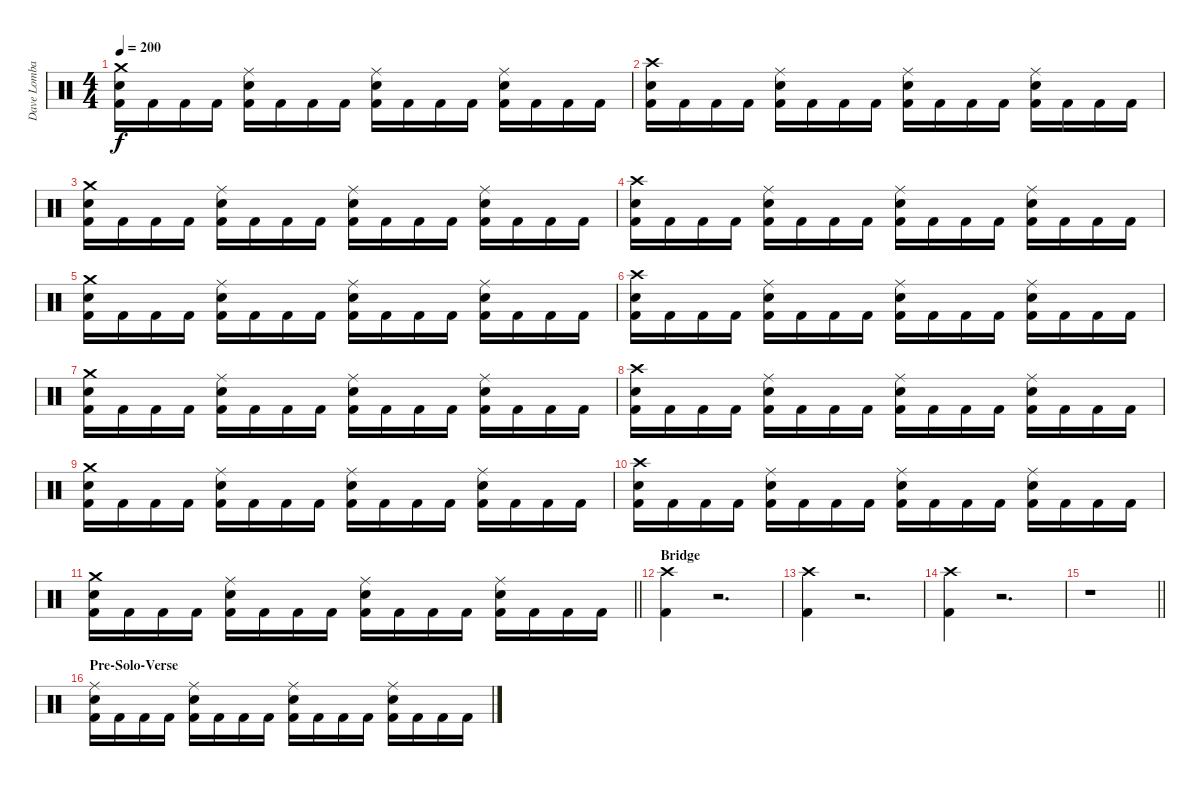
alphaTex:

\track ("Dave Lombardo (Drums)" "Dave Lomba") {instrument percussion}
\staff {score}
\articulation defaults
\ts (4 4)
\tempo 200
\clef neutral
\ks c
("Crash medium (hit)" "Snare (hit) 2" "Kick (hit) 2").16{dy f} "Kick (hit) 2".16 "Kick (hit) 2".16 "Kick (hit) 2".16 ("Ride (middle)" "Snare (hit) 2" "Kick (hit) 2").16 "Kick (hit) 2".16 "Kick (hit) 2".16 "Kick (hit) 2".16 ("Ride (middle)" "Snare (hit) 2" "Kick (hit) 2").16 "Kick (hit) 2".16 "Kick (hit) 2".16 "Kick (hit) 2".16 ("Ride (middle)" "Snare (hit) 2" "Kick (hit) 2").16 "Kick (hit) 2".16 "Kick (hit) 2".16 "Kick (hit) 2".16 |
("Crash high (hit)" "Snare (hit) 2" "Kick (hit) 2").16 "Kick (hit) 2".16 "Kick (hit) 2".16 "Kick (hit) 2".16 ("Ride (middle)" "Snare (hit) 2" "Kick (hit) 2").16 "Kick (hit) 2".16 "Kick (hit) 2".16 "Kick (hit) 2".16 ("Ride (middle)" "Snare (hit) 2" "Kick (hit) 2").16 "Kick (hit) 2".16 "Kick (hit) 2".16 "Kick (hit) 2".16 ("Ride (middle)" "Snare (hit) 2" "Kick (hit) 2").16 "Kick (hit) 2".16 "Kick (hit) 2".16 "Kick (hit) 2".16 |
("Crash medium (hit)" "Snare (hit) 2" "Kick (hit) 2").16 "Kick (hit) 2".16 "Kick (hit) 2".16 "Kick (hit) 2".16 ("Ride (middle)" "Snare (hit) 2" "Kick (hit) 2").16 "Kick (hit) 2".16 "Kick (hit) 2".16 "Kick (hit) 2".16 ("Ride (middle)" "Snare (hit) 2" "Kick (hit) 2").16 "Kick (hit) 2".16 "Kick (hit) 2".16 "Kick (hit) 2".16 ("Ride (middle)" "Snare (hit) 2" "Kick (hit) 2").16 "Kick (hit) 2".16 "Kick (hit) 2".16 "Kick (hit) 2".16 |
("Crash high (hit)" "Snare (hit) 2" "Kick (hit) 2").16 "Kick (hit) 2".16 "Kick (hit) 2".16 "Kick (hit) 2".16 ("Ride (middle)" "Snare (hit) 2" "Kick (hit) 2").16 "Kick (hit) 2".16 "Kick (hit) 2".16 "Kick (hit) 2".16 ("Ride (middle)" "Snare (hit) 2" "Kick (hit) 2").16 "Kick (hit) 2".16 "Kick (hit) 2".16 "Kick (hit) 2".16 ("Ride (middle)" "Snare (hit) 2" "Kick (hit) 2").16 "Kick (hit) 2".16 "Kick (hit) 2".16 "Kick (hit) 2".16 |
("Crash medium (hit)" "Snare (hit) 2" "Kick (hit) 2").16 "Kick (hit) 2".16 "Kick (hit) 2".16 "Kick (hit) 2".16 ("Ride (middle)" "Snare (hit) 2" "Kick (hit) 2").16 "Kick (hit) 2".16 "Kick (hit) 2".16 "Kick (hit) 2".16 ("Ride (middle)" "Snare (hit) 2" "Kick (hit) 2").16 "Kick (hit) 2".16 "Kick (hit) 2".16 "Kick (hit) 2".16 ("Ride (middle)" "Snare (hit) 2" "Kick (hit) 2").16 "Kick (hit) 2".16 "Kick (hit) 2".16 "Kick (hit) 2".16 |
("Crash high (hit)" "Snare (hit) 2" "Kick (hit) 2").16 "Kick (hit) 2".16 "Kick (hit) 2".16 "Kick (hit) 2".16 ("Ride (middle)" "Snare (hit) 2" "Kick (hit) 2").16 "Kick (hit) 2".16 "Kick (hit) 2".16 "Kick (hit) 2".16 ("Ride (middle)" "Snare (hit) 2" "Kick (hit) 2").16 "Kick (hit) 2".16 "Kick (hit) 2".16 "Kick (hit) 2".16 ("Ride (middle)" "Snare (hit) 2" "Kick (hit) 2").16 "Kick (hit) 2".16 "Kick (hit) 2".16 "Kick (hit) 2".16 |
("Crash medium (hit)" "Snare (hit) 2" "Kick (hit) 2").16 "Kick (hit) 2".16 "Kick (hit) 2".16 "Kick (hit) 2".16 ("Ride (middle)" "Snare (hit) 2" "Kick (hit) 2").16 "Kick (hit) 2".16 "Kick (hit) 2".16 "Kick (hit) 2".16 ("Ride (middle)" "Snare (hit) 2" "Kick (hit) 2").16 "Kick (hit) 2".16 "Kick (hit) 2".16 "Kick (hit) 2".16 ("Ride (middle)" "Snare (hit) 2" "Kick (hit) 2").16 "Kick (hit) 2".16 "Kick (hit) 2".16 "Kick (hit) 2".16 |
("Crash high (hit)" "Snare (hit) 2" "Kick (hit) 2").16 "Kick (hit) 2".16 "Kick (hit) 2".16 "Kick (hit) 2".16 ("Ride (middle)" "Snare (hit) 2" "Kick (hit) 2").16 "Kick (hit) 2".16 "Kick (hit) 2".16 "Kick (hit) 2".16 ("Ride (middle)" "Snare (hit) 2" "Kick (hit) 2").16 "Kick (hit) 2".16 "Kick (hit) 2".16 "Kick (hit) 2".16 ("Ride (middle)" "Snare (hit) 2" "Kick (hit) 2").16 "Kick (hit) 2".16 "Kick (hit) 2".16 "Kick (hit) 2".16 |
("Crash medium (hit)" "Snare (hit) 2" "Kick (hit) 2").16 "Kick (hit) 2".16 "Kick (hit) 2".16 "Kick (hit) 2".16 ("Ride (middle)" "Snare (hit) 2" "Kick (hit) 2").16 "Kick (hit) 2".16 "Kick (hit) 2".16 "Kick (hit) 2".16 ("Ride (middle)" "Snare (hit) 2" "Kick (hit) 2").16 "Kick (hit) 2".16 "Kick (hit) 2".16 "Kick (hit) 2".16 ("Ride (middle)" "Snare (hit) 2" "Kick (hit) 2").16 "Kick (hit) 2".16 "Kick (hit) 2".16 "Kick (hit) 2".16 |
("Crash high (hit)" "Snare (hit) 2" "Kick (hit) 2").16 "Kick (hit) 2".16 "Kick (hit) 2".16 "Kick (hit) 2".16 ("Ride (middle)" "Snare (hit) 2" "Kick (hit) 2").16 "Kick (hit) 2".16 "Kick (hit) 2".16 "Kick (hit) 2".16 ("Ride (middle)" "Snare (hit) 2" "Kick (hit) 2").16 "Kick (hit) 2".16 "Kick (hit) 2".16 "Kick (hit) 2".16 ("Ride (middle)" "Snare (hit) 2" "Kick (hit) 2").16 "Kick (hit) 2".16 "Kick (hit) 2".16 "Kick (hit) 2".16 |
\barLineRight lightlight
("Crash medium (hit)" "Snare (hit) 2" "Kick (hit) 2").16 "Kick (hit) 2".16 "Kick (hit) 2".16 "Kick (hit) 2".16 ("Ride (middle)" "Snare (hit) 2" "Kick (hit) 2").16 "Kick (hit) 2".16 "Kick (hit) 2".16 "Kick (hit) 2".16 ("Ride (middle)" "Snare (hit) 2" "Kick (hit) 2").16 "Kick (hit) 2".16 "Kick (hit) 2".16 "Kick (hit) 2".16 ("Ride (middle)" "Snare (hit) 2" "Kick (hit) 2").16 "Kick (hit) 2".16 "Kick (hit) 2".16 "Kick (hit) 2".16 |
\section ("" "Bridge")
("Crash high (hit)" "Kick (hit) 2").4 r.2{d} |
("Crash high (hit)" "Kick (hit) 2").4 r.2{d} |
("Crash high (hit)" "Kick (hit) 2").4 r.2{d} |
\barLineRight lightlight
r.1 |
\section ("" "Pre-Solo-Verse")
("Ride (middle)" "Snare (hit) 2" "Kick (hit) 2").16 "Kick (hit) 2".16 "Kick (hit) 2".16 "Kick (hit) 2".16 ("Ride (middle)" "Snare (hit) 2" "Kick (hit) 2").16 "Kick (hit) 2".16 "Kick (hit) 2".16 "Kick (hit) 2".16 ("Ride (middle)" "Snare (hit) 2" "Kick (hit) 2").16 "Kick (hit) 2".16 "Kick (hit) 2".16 "Kick (hit) 2".16 ("Ride (middle)" "Snare (hit) 2" "Kick (hit) 2").16 "Kick (hit) 2".16 "Kick (hit) 2".16 "Kick (hit) 2".16
